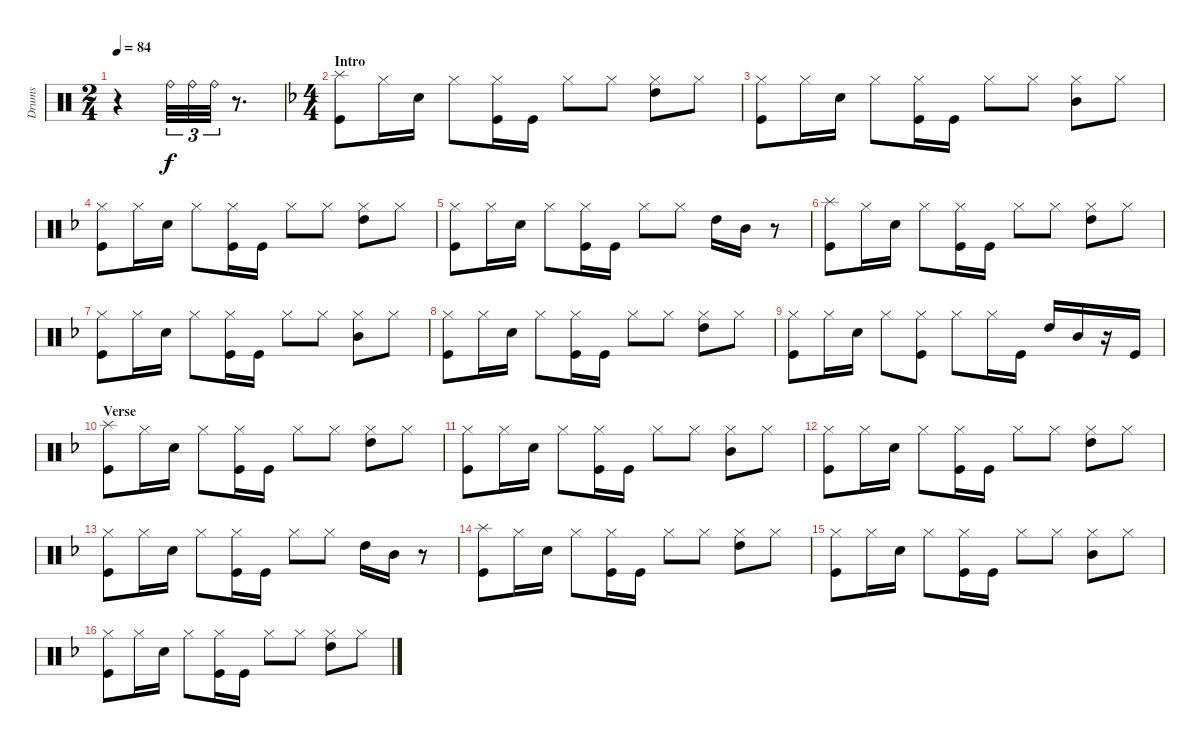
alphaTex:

\track ("Drums" "Drums") {instrument percussion}
\staff {score}
\articulation defaults
\ts (2 4)
\tempo 84
\clef neutral
\ks c
r.4{dy f} "Ride (bell)".32{tu (3 2)} "Ride (bell)".32{tu (3 2)} "Ride (bell)".32{tu (3 2)} r.8{d} |
\ts (4 4)
\section ("" "Intro")
\ks dminor
("Splash (hit)" "Kick (hit)").8 "Hi-Hat (closed)".16 "Snare (hit) 2".16 "Hi-Hat (closed)".8 ("Hi-Hat (closed)" "Kick (hit)").16 "Kick (hit)".16 "Hi-Hat (closed)".8 "Hi-Hat (closed)".8 ("Hi-Hat (closed)" "High Tom (hit)").8 "Hi-Hat (closed)".8 |
("Hi-Hat (closed)" "Kick (hit)").8 "Hi-Hat (closed)".16 "Snare (hit) 2".16 "Hi-Hat (closed)".8 ("Hi-Hat (closed)" "Kick (hit)").16 "Kick (hit)".16 "Hi-Hat (closed)".8 "Hi-Hat (closed)".8 ("Hi-Hat (closed)" "Mid Tom (hit)").8 "Hi-Hat (closed)".8 |
("Hi-Hat (closed)" "Kick (hit)").8 "Hi-Hat (closed)".16 "Snare (hit) 2".16 "Hi-Hat (closed)".8 ("Hi-Hat (closed)" "Kick (hit)").16 "Kick (hit)".16 "Hi-Hat (closed)".8 "Hi-Hat (closed)".8 ("Hi-Hat (closed)" "High Tom (hit)").8 "Hi-Hat (closed)".8 |
("Hi-Hat (closed)" "Kick (hit)").8 "Hi-Hat (closed)".16 "Snare (hit) 2".16 "Hi-Hat (closed)".8 ("Hi-Hat (closed)" "Kick (hit)").16 "Kick (hit)".16 "Hi-Hat (closed)".8 "Hi-Hat (closed)".8 "High Tom (hit)".16 "Mid Tom (hit)".16 r.8 |
("Splash (hit)" "Kick (hit)").8 "Hi-Hat (closed)".16 "Snare (hit) 2".16 "Hi-Hat (closed)".8 ("Hi-Hat (closed)" "Kick (hit)").16 "Kick (hit)".16 "Hi-Hat (closed)".8 "Hi-Hat (closed)".8 ("Hi-Hat (closed)" "High Tom (hit)").8 "Hi-Hat (closed)".8 |
("Hi-Hat (closed)" "Kick (hit)").8 "Hi-Hat (closed)".16 "Snare (hit) 2".16 "Hi-Hat (closed)".8 ("Hi-Hat (closed)" "Kick (hit)").16 "Kick (hit)".16 "Hi-Hat (closed)".8 "Hi-Hat (closed)".8 ("Hi-Hat (closed)" "Mid Tom (hit)").8 "Hi-Hat (closed)".8 |
("Hi-Hat (closed)" "Kick (hit)").8 "Hi-Hat (closed)".16 "Snare (hit) 2".16 "Hi-Hat (closed)".8 ("Hi-Hat (closed)" "Kick (hit)").16 "Kick (hit)".16 "Hi-Hat (closed)".8 "Hi-Hat (closed)".8 ("Hi-Hat (closed)" "High Tom (hit)").8 "Hi-Hat (closed)".8 |
("Hi-Hat (closed)" "Kick (hit)").8 "Hi-Hat (closed)".16 "Snare (hit) 2".16 "Hi-Hat (closed)".8 ("Hi-Hat (closed)" "Kick (hit)").8 "Hi-Hat (closed)".8 "Hi-Hat (closed)".16 "Kick (hit)".16 "High Tom (hit)".16 "Mid Tom (hit)".16 r.16 "Kick (hit)".16 |
\section ("" "Verse")
("Splash (hit)" "Kick (hit)").8 "Hi-Hat (closed)".16 "Snare (hit) 2".16 "Hi-Hat (closed)".8 ("Hi-Hat (closed)" "Kick (hit)").16 "Kick (hit)".16 "Hi-Hat (closed)".8 "Hi-Hat (closed)".8 ("Hi-Hat (closed)" "High Tom (hit)").8 "Hi-Hat (closed)".8 |
("Hi-Hat (closed)" "Kick (hit)").8 "Hi-Hat (closed)".16 "Snare (hit) 2".16 "Hi-Hat (closed)".8 ("Hi-Hat (closed)" "Kick (hit)").16 "Kick (hit)".16 "Hi-Hat (closed)".8 "Hi-Hat (closed)".8 ("Hi-Hat (closed)" "Mid Tom (hit)").8 "Hi-Hat (closed)".8 |
("Hi-Hat (closed)" "Kick (hit)").8 "Hi-Hat (closed)".16 "Snare (hit) 2".16 "Hi-Hat (closed)".8 ("Hi-Hat (closed)" "Kick (hit)").16 "Kick (hit)".16 "Hi-Hat (closed)".8 "Hi-Hat (closed)".8 ("Hi-Hat (closed)" "High Tom (hit)").8 "Hi-Hat (closed)".8 |
("Hi-Hat (closed)" "Kick (hit)").8 "Hi-Hat (closed)".16 "Snare (hit) 2".16 "Hi-Hat (closed)".8 ("Hi-Hat (closed)" "Kick (hit)").16 "Kick (hit)".16 "Hi-Hat (closed)".8 "Hi-Hat (closed)".8 "High Tom (hit)".16 "Mid Tom (hit)".16 r.8 |
("Splash (hit)" "Kick (hit)").8 "Hi-Hat (closed)".16 "Snare (hit) 2".16 "Hi-Hat (closed)".8 ("Hi-Hat (closed)" "Kick (hit)").16 "Kick (hit)".16 "Hi-Hat (closed)".8 "Hi-Hat (closed)".8 ("Hi-Hat (closed)" "High Tom (hit)").8 "Hi-Hat (closed)".8 |
("Hi-Hat (closed)" "Kick (hit)").8 "Hi-Hat (closed)".16 "Snare (hit) 2".16 "Hi-Hat (closed)".8 ("Hi-Hat (closed)" "Kick (hit)").16 "Kick (hit)".16 "Hi-Hat (closed)".8 "Hi-Hat (closed)".8 ("Hi-Hat (closed)" "Mid Tom (hit)").8 "Hi-Hat (closed)".8 |
("Hi-Hat (closed)" "Kick (hit)").8 "Hi-Hat (closed)".16 "Snare (hit) 2".16 "Hi-Hat (closed)".8 ("Hi-Hat (closed)" "Kick (hit)").16 "Kick (hit)".16 "Hi-Hat (closed)".8 "Hi-Hat (closed)".8 ("Hi-Hat (closed)" "High Tom (hit)").8 "Hi-Hat (closed)".8
